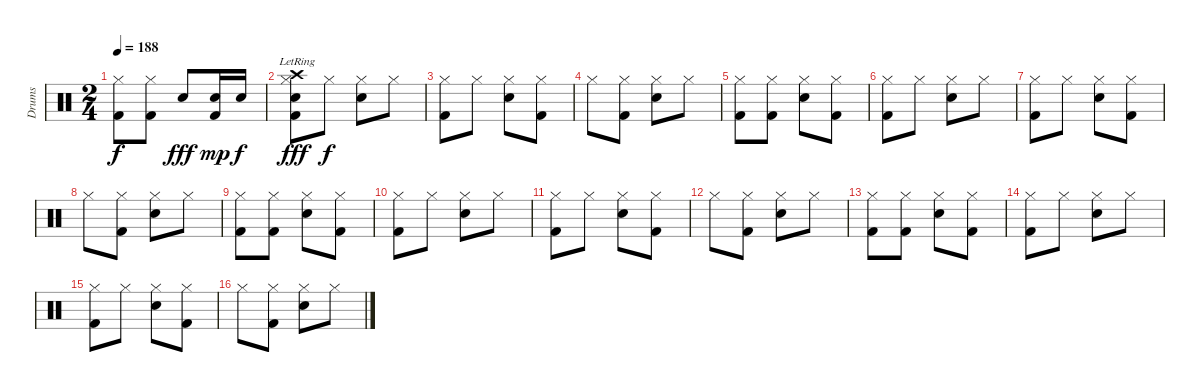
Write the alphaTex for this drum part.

\track ("Drums" "Drums") {instrument percussion}
\staff {score}
\articulation defaults
\ts (2 4)
\tempo 188
\clef neutral
\ks c
("Hi-Hat (closed)" "Kick (hit) 2").8{dy f} ("Hi-Hat (closed)" "Kick (hit) 2").8 "Snare (hit) 2".8{dy fff} ("Snare (hit) 2" "Kick (hit) 2").16{dy mp} "Snare (hit) 2".16{dy f} |
("Crash high (hit)"{lr} "Hi-Hat (closed)" "Snare (hit) 2" "Kick (hit) 2").8{dy fff} "Hi-Hat (closed)".8{dy f} ("Hi-Hat (closed)" "Snare (hit) 2").8 "Hi-Hat (closed)".8 |
("Hi-Hat (closed)" "Kick (hit) 2").8 "Hi-Hat (closed)".8 ("Hi-Hat (closed)" "Snare (hit) 2").8 ("Hi-Hat (closed)" "Kick (hit) 2").8 |
"Hi-Hat (closed)".8 ("Hi-Hat (closed)" "Kick (hit) 2").8 ("Hi-Hat (closed)" "Snare (hit) 2").8 "Hi-Hat (closed)".8 |
("Hi-Hat (closed)" "Kick (hit) 2").8 ("Hi-Hat (closed)" "Kick (hit) 2").8 ("Hi-Hat (closed)" "Snare (hit) 2").8 ("Hi-Hat (closed)" "Kick (hit) 2").8 |
("Hi-Hat (closed)" "Kick (hit) 2").8 "Hi-Hat (closed)".8 ("Hi-Hat (closed)" "Snare (hit) 2").8 "Hi-Hat (closed)".8 |
("Hi-Hat (closed)" "Kick (hit) 2").8 "Hi-Hat (closed)".8 ("Hi-Hat (closed)" "Snare (hit) 2").8 ("Hi-Hat (closed)" "Kick (hit) 2").8 |
"Hi-Hat (closed)".8 ("Hi-Hat (closed)" "Kick (hit) 2").8 ("Hi-Hat (closed)" "Snare (hit) 2").8 "Hi-Hat (closed)".8 |
("Hi-Hat (closed)" "Kick (hit) 2").8 ("Hi-Hat (closed)" "Kick (hit) 2").8 ("Hi-Hat (closed)" "Snare (hit) 2").8 ("Hi-Hat (closed)" "Kick (hit) 2").8 |
("Hi-Hat (closed)" "Kick (hit) 2").8 "Hi-Hat (closed)".8 ("Hi-Hat (closed)" "Snare (hit) 2").8 "Hi-Hat (closed)".8 |
("Hi-Hat (closed)" "Kick (hit) 2").8 "Hi-Hat (closed)".8 ("Hi-Hat (closed)" "Snare (hit) 2").8 ("Hi-Hat (closed)" "Kick (hit) 2").8 |
"Hi-Hat (closed)".8 ("Hi-Hat (closed)" "Kick (hit) 2").8 ("Hi-Hat (closed)" "Snare (hit) 2").8 "Hi-Hat (closed)".8 |
("Hi-Hat (closed)" "Kick (hit) 2").8 ("Hi-Hat (closed)" "Kick (hit) 2").8 ("Hi-Hat (closed)" "Snare (hit) 2").8 ("Hi-Hat (closed)" "Kick (hit) 2").8 |
("Hi-Hat (closed)" "Kick (hit) 2").8 "Hi-Hat (closed)".8 ("Hi-Hat (closed)" "Snare (hit) 2").8 "Hi-Hat (closed)".8 |
("Hi-Hat (closed)" "Kick (hit) 2").8 "Hi-Hat (closed)".8 ("Hi-Hat (closed)" "Snare (hit) 2").8 ("Hi-Hat (closed)" "Kick (hit) 2").8 |
"Hi-Hat (closed)".8 ("Hi-Hat (closed)" "Kick (hit) 2").8 ("Hi-Hat (closed)" "Snare (hit) 2").8 "Hi-Hat (closed)".8
